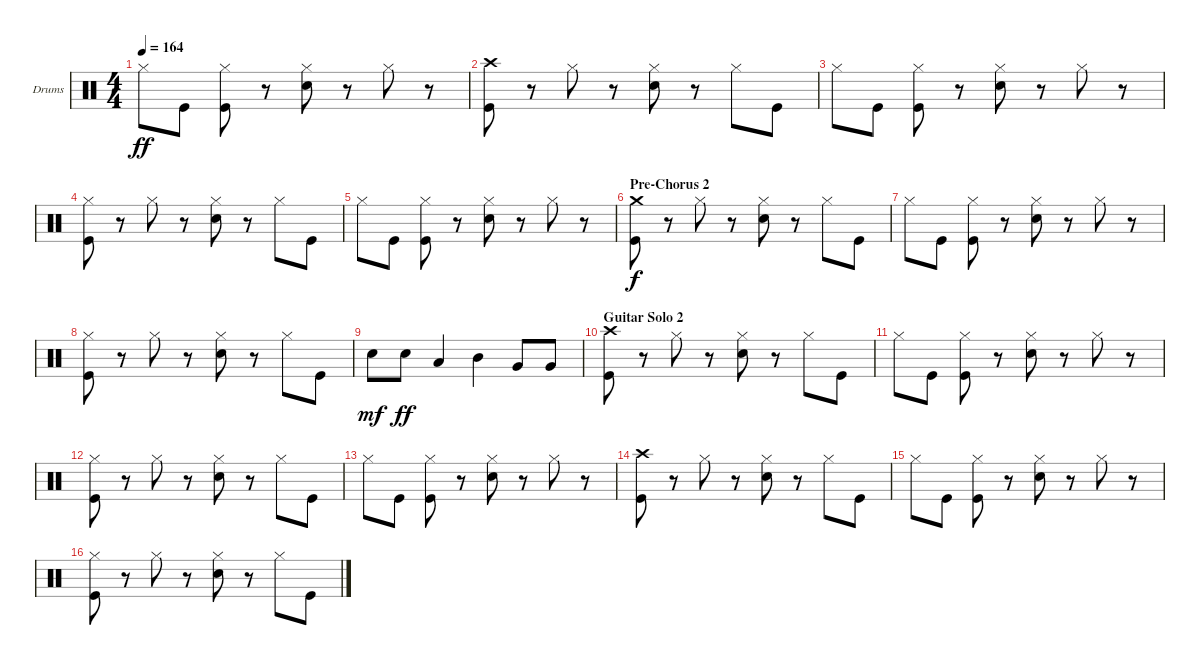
\defaultSystemsLayout 4
\bracketExtendMode groupsimilarinstruments
\firstSystemTrackNameOrientation horizontal
\otherSystemsTrackNameOrientation horizontal
\track ("Drumkit" "Drums") {instrument percussion}
\staff {score}
\articulation defaults
\ts (4 4)
\tempo 164
\clef neutral
\ks c "Hi-Hat (closed)".8{dy ff} "Kick (hit)".8
("Hi-Hat (closed)" "Kick (hit)").8 r.8 ("Hi-Hat (closed)" "Snare (hit) 2").8 r.8 "Hi-Hat (closed)".8 r.8 |
("Kick (hit)" "Crash high (hit)").8 r.8 "Hi-Hat (closed)".8 r.8 ("Hi-Hat (closed)" "Snare (hit) 2").8 r.8 "Hi-Hat (closed)".8 "Kick (hit)".8 |
"Hi-Hat (closed)".8 "Kick (hit)".8 ("Hi-Hat (closed)" "Kick (hit)").8 r.8 ("Hi-Hat (closed)" "Snare (hit) 2").8 r.8 "Hi-Hat (closed)".8 r.8 |
("Kick (hit)" "Hi-Hat (closed)").8 r.8 "Hi-Hat (closed)".8 r.8 ("Hi-Hat (closed)" "Snare (hit) 2").8 r.8 "Hi-Hat (closed)".8 "Kick (hit)".8 |
"Hi-Hat (closed)".8 "Kick (hit)".8 ("Hi-Hat (closed)" "Kick (hit)").8 r.8 ("Hi-Hat (closed)" "Snare (hit) 2").8 r.8 "Hi-Hat (closed)".8 r.8 |
\section ("" "Pre-Chorus 2")
("Kick (hit)" "Crash medium (hit)").8{dy f} r.8 "Hi-Hat (closed)".8 r.8 ("Hi-Hat (closed)" "Snare (hit) 2").8 r.8 "Hi-Hat (closed)".8 "Kick (hit)".8 |
"Hi-Hat (closed)".8 "Kick (hit)".8 ("Hi-Hat (closed)" "Kick (hit)").8 r.8 ("Snare (hit) 2" "Hi-Hat (closed)").8 r.8 "Hi-Hat (closed)".8 r.8 |
("Kick (hit)" "Hi-Hat (closed)").8 r.8 "Hi-Hat (closed)".8 r.8 ("Hi-Hat (closed)" "Snare (hit) 2").8 r.8 "Hi-Hat (closed)".8 "Kick (hit)".8 |
"Snare (hit) 2".8{dy mf} "Snare (hit) 2".8{dy ff} "Low Tom (hit)".4 "Mid Tom (hit)".4 "Very Low Tom (hit)".8 "Very Low Tom (hit)".8 |
\section ("" "Guitar Solo 2")
("Kick (hit)" "Crash high (hit)").8 r.8 "Hi-Hat (closed)".8 r.8 ("Hi-Hat (closed)" "Snare (hit) 2").8 r.8 "Hi-Hat (closed)".8 "Kick (hit)".8 |
"Hi-Hat (closed)".8 "Kick (hit)".8 ("Hi-Hat (closed)" "Kick (hit)").8 r.8 ("Hi-Hat (closed)" "Snare (hit) 2").8 r.8 "Hi-Hat (closed)".8 r.8 |
("Kick (hit)" "Hi-Hat (closed)").8 r.8 "Hi-Hat (closed)".8 r.8 ("Hi-Hat (closed)" "Snare (hit) 2").8 r.8 "Hi-Hat (closed)".8 "Kick (hit)".8 |
"Hi-Hat (closed)".8 "Kick (hit)".8 ("Hi-Hat (closed)" "Kick (hit)").8 r.8 ("Hi-Hat (closed)" "Snare (hit) 2").8 r.8 "Hi-Hat (closed)".8 r.8 |
("Kick (hit)" "Crash high (hit)").8 r.8 "Hi-Hat (closed)".8 r.8 ("Hi-Hat (closed)" "Snare (hit) 2").8 r.8 "Hi-Hat (closed)".8 "Kick (hit)".8 |
"Hi-Hat (closed)".8 "Kick (hit)".8 ("Hi-Hat (closed)" "Kick (hit)").8 r.8 ("Hi-Hat (closed)" "Snare (hit) 2").8 r.8 "Hi-Hat (closed)".8 r.8 |
("Kick (hit)" "Hi-Hat (closed)").8 r.8 "Hi-Hat (closed)".8 r.8 ("Hi-Hat (closed)" "Snare (hit) 2").8 r.8 "Hi-Hat (closed)".8 "Kick (hit)".8
